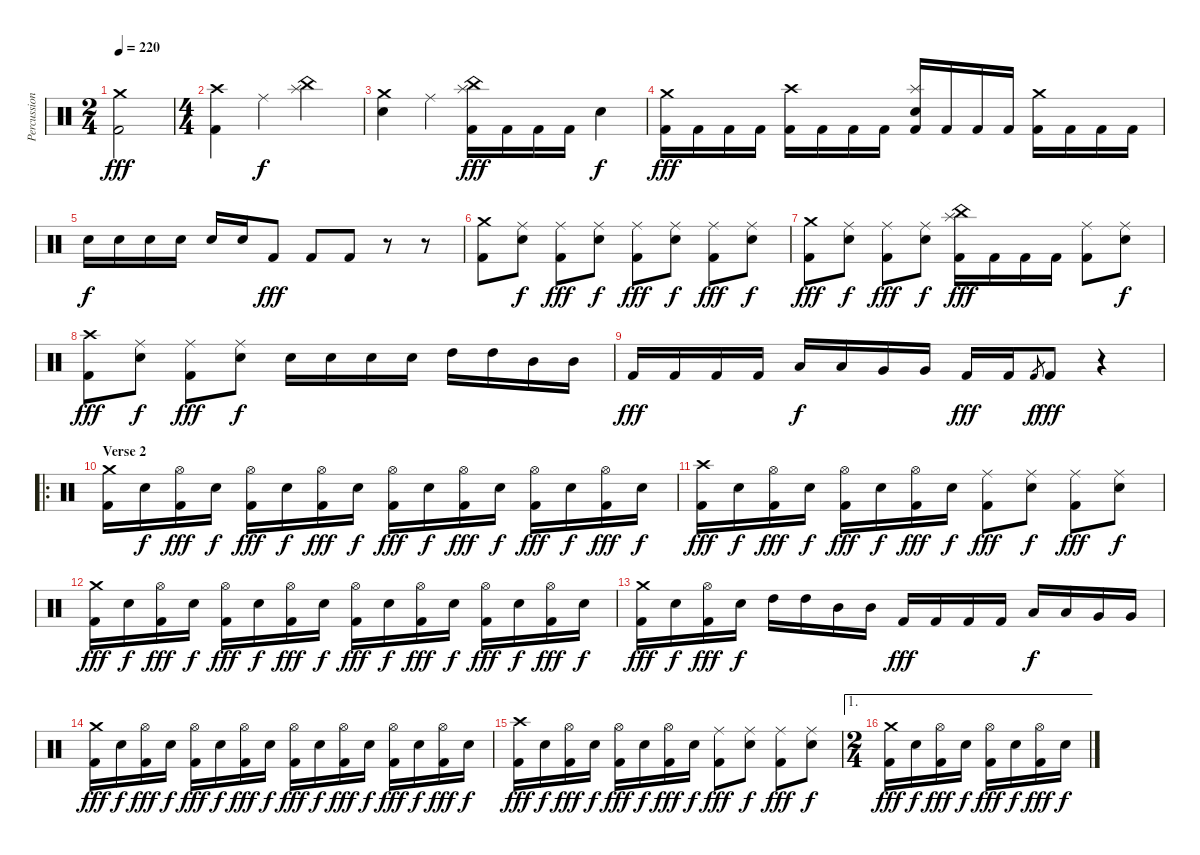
\track ("Percussions" "Percussion") {instrument percussion}
\staff {score}
\articulation defaults
\ts (2 4)
\tempo 220
\clef neutral
\ks c
("Crash medium (hit)" "Kick (hit) 2").2{dy fff} |
\ts (4 4)
("Crash high (hit)" "Kick (hit) 2").4 "Ride (middle)".4{dy f} ("China (hit)" "Splash (hit)").2 |
("Crash medium (hit)" "Electric Snare (hit)").4 "Ride (middle)".4 ("China (hit)" "Splash (hit)" "Kick (hit) 2").16{dy fff} "Kick (hit) 2".16 "Kick (hit) 2".16 "Kick (hit) 2".16 "Electric Snare (hit)".4{dy f} |
("Crash medium (hit)" "Kick (hit) 2").16{dy fff} "Kick (hit) 2".16 "Kick (hit) 2".16 "Kick (hit) 2".16 ("Crash high (hit)" "Kick (hit) 2").16 "Kick (hit) 2".16 "Kick (hit) 2".16 "Kick (hit) 2".16 ("Splash (hit)" "Electric Snare (hit)" "Kick (hit) 2").16 "Kick (hit) 2".16 "Kick (hit) 2".16 "Kick (hit) 2".16 ("Crash medium (hit)" "Kick (hit) 2").16 "Kick (hit) 2".16 "Kick (hit) 2".16 "Kick (hit) 2".16 |
"Electric Snare (hit)".16{dy f} "Electric Snare (hit)".16 "Electric Snare (hit)".16 "Electric Snare (hit)".16 "Electric Snare (hit)".16 "Electric Snare (hit)".16 "Kick (hit) 2".8{dy fff} "Kick (hit) 2".8 "Kick (hit) 2".8 r.8 r.8 |
("Crash medium (hit)" "Kick (hit) 2").8 ("Ride (middle)" "Electric Snare (hit)").8{dy f} ("Ride (middle)" "Kick (hit) 2").8{dy fff} ("Ride (middle)" "Electric Snare (hit)").8{dy f} ("Ride (middle)" "Kick (hit) 2").8{dy fff} ("Ride (middle)" "Electric Snare (hit)").8{dy f} ("Ride (middle)" "Kick (hit) 2").8{dy fff} ("Ride (middle)" "Electric Snare (hit)").8{dy f} |
("Crash medium (hit)" "Kick (hit) 2").8{dy fff} ("Ride (middle)" "Electric Snare (hit)").8{dy f} ("Ride (middle)" "Kick (hit) 2").8{dy fff} ("Ride (middle)" "Electric Snare (hit)").8{dy f} ("China (hit)" "Splash (hit)" "Kick (hit) 2").16{dy fff} "Kick (hit) 2".16 "Kick (hit) 2".16 "Kick (hit) 2".16 ("Ride (middle)" "Kick (hit) 2").8 ("Ride (middle)" "Electric Snare (hit)").8{dy f} |
("Crash high (hit)" "Kick (hit) 2").8{dy fff} ("Ride (middle)" "Electric Snare (hit)").8{dy f} ("Ride (middle)" "Kick (hit) 2").8{dy fff} ("Ride (middle)" "Electric Snare (hit)").8{dy f} "Electric Snare (hit)".16 "Electric Snare (hit)".16 "Electric Snare (hit)".16 "Electric Snare (hit)".16 "High Tom (hit)".16 "High Tom (hit)".16 "Mid Tom (hit)".16 "Mid Tom (hit)".16 |
"Kick (hit) 2".16{dy fff} "Kick (hit) 2".16 "Kick (hit) 2".16 "Kick (hit) 2".16 "Low Tom (hit)".16{dy f} "Low Tom (hit)".16 "Very Low Tom (hit)".16 "Very Low Tom (hit)".16 "Kick (hit) 2".16{dy fff} "Kick (hit) 2".16 "Kick (hit) 2".8{gr dy f} "Kick (hit) 2".8{dy fff} r.4 |
\ro
\section ("" "Verse 2")
("Crash medium (hit)" "Kick (hit) 2").16 "Electric Snare (hit)".16{dy f} ("Hi-Hat (open)" "Kick (hit) 2").16{dy fff} "Electric Snare (hit)".16{dy f} ("Hi-Hat (open)" "Kick (hit) 2").16{dy fff} "Electric Snare (hit)".16{dy f} ("Hi-Hat (open)" "Kick (hit) 2").16{dy fff} "Electric Snare (hit)".16{dy f} ("Hi-Hat (open)" "Kick (hit) 2").16{dy fff} "Electric Snare (hit)".16{dy f} ("Hi-Hat (open)" "Kick (hit) 2").16{dy fff} "Electric Snare (hit)".16{dy f} ("Hi-Hat (open)" "Kick (hit) 2").16{dy fff} "Electric Snare (hit)".16{dy f} ("Hi-Hat (open)" "Kick (hit) 2").16{dy fff} "Electric Snare (hit)".16{dy f} |
("Crash high (hit)" "Kick (hit) 2").16{dy fff} "Electric Snare (hit)".16{dy f} ("Hi-Hat (open)" "Kick (hit) 2").16{dy fff} "Electric Snare (hit)".16{dy f} ("Hi-Hat (open)" "Kick (hit) 2").16{dy fff} "Electric Snare (hit)".16{dy f} ("Hi-Hat (open)" "Kick (hit) 2").16{dy fff} "Electric Snare (hit)".16{dy f} ("Ride (middle)" "Kick (hit) 2").8{dy fff} ("Ride (middle)" "Electric Snare (hit)").8{dy f} ("Ride (middle)" "Kick (hit) 2").8{dy fff} ("Ride (middle)" "Electric Snare (hit)").8{dy f} |
("Crash medium (hit)" "Kick (hit) 2").16{dy fff} "Electric Snare (hit)".16{dy f} ("Hi-Hat (open)" "Kick (hit) 2").16{dy fff} "Electric Snare (hit)".16{dy f} ("Hi-Hat (open)" "Kick (hit) 2").16{dy fff} "Electric Snare (hit)".16{dy f} ("Hi-Hat (open)" "Kick (hit) 2").16{dy fff} "Electric Snare (hit)".16{dy f} ("Hi-Hat (open)" "Kick (hit) 2").16{dy fff} "Electric Snare (hit)".16{dy f} ("Hi-Hat (open)" "Kick (hit) 2").16{dy fff} "Electric Snare (hit)".16{dy f} ("Hi-Hat (open)" "Kick (hit) 2").16{dy fff} "Electric Snare (hit)".16{dy f} ("Hi-Hat (open)" "Kick (hit) 2").16{dy fff} "Electric Snare (hit)".16{dy f} |
("Crash medium (hit)" "Kick (hit) 2").16{dy fff} "Electric Snare (hit)".16{dy f} ("Hi-Hat (open)" "Kick (hit) 2").16{dy fff} "Electric Snare (hit)".16{dy f} "High Tom (hit)".16 "High Tom (hit)".16 "Mid Tom (hit)".16 "Mid Tom (hit)".16 "Kick (hit) 2".16{dy fff} "Kick (hit) 2".16 "Kick (hit) 2".16 "Kick (hit) 2".16 "Low Tom (hit)".16{dy f} "Low Tom (hit)".16 "Very Low Tom (hit)".16 "Very Low Tom (hit)".16 |
("Crash medium (hit)" "Kick (hit) 2").16{dy fff} "Electric Snare (hit)".16{dy f} ("Hi-Hat (open)" "Kick (hit) 2").16{dy fff} "Electric Snare (hit)".16{dy f} ("Hi-Hat (open)" "Kick (hit) 2").16{dy fff} "Electric Snare (hit)".16{dy f} ("Hi-Hat (open)" "Kick (hit) 2").16{dy fff} "Electric Snare (hit)".16{dy f} ("Hi-Hat (open)" "Kick (hit) 2").16{dy fff} "Electric Snare (hit)".16{dy f} ("Hi-Hat (open)" "Kick (hit) 2").16{dy fff} "Electric Snare (hit)".16{dy f} ("Hi-Hat (open)" "Kick (hit) 2").16{dy fff} "Electric Snare (hit)".16{dy f} ("Hi-Hat (open)" "Kick (hit) 2").16{dy fff} "Electric Snare (hit)".16{dy f} |
("Crash high (hit)" "Kick (hit) 2").16{dy fff} "Electric Snare (hit)".16{dy f} ("Hi-Hat (open)" "Kick (hit) 2").16{dy fff} "Electric Snare (hit)".16{dy f} ("Hi-Hat (open)" "Kick (hit) 2").16{dy fff} "Electric Snare (hit)".16{dy f} ("Hi-Hat (open)" "Kick (hit) 2").16{dy fff} "Electric Snare (hit)".16{dy f} ("Ride (middle)" "Kick (hit) 2").8{dy fff} ("Ride (middle)" "Electric Snare (hit)").8{dy f} ("Ride (middle)" "Kick (hit) 2").8{dy fff} ("Ride (middle)" "Electric Snare (hit)").8{dy f} |
\ae 1
\ts (2 4)
("Crash medium (hit)" "Kick (hit) 2").16{dy fff} "Electric Snare (hit)".16{dy f} ("Hi-Hat (open)" "Kick (hit) 2").16{dy fff} "Electric Snare (hit)".16{dy f} ("Hi-Hat (open)" "Kick (hit) 2").16{dy fff} "Electric Snare (hit)".16{dy f} ("Hi-Hat (open)" "Kick (hit) 2").16{dy fff} "Electric Snare (hit)".16{dy f}
